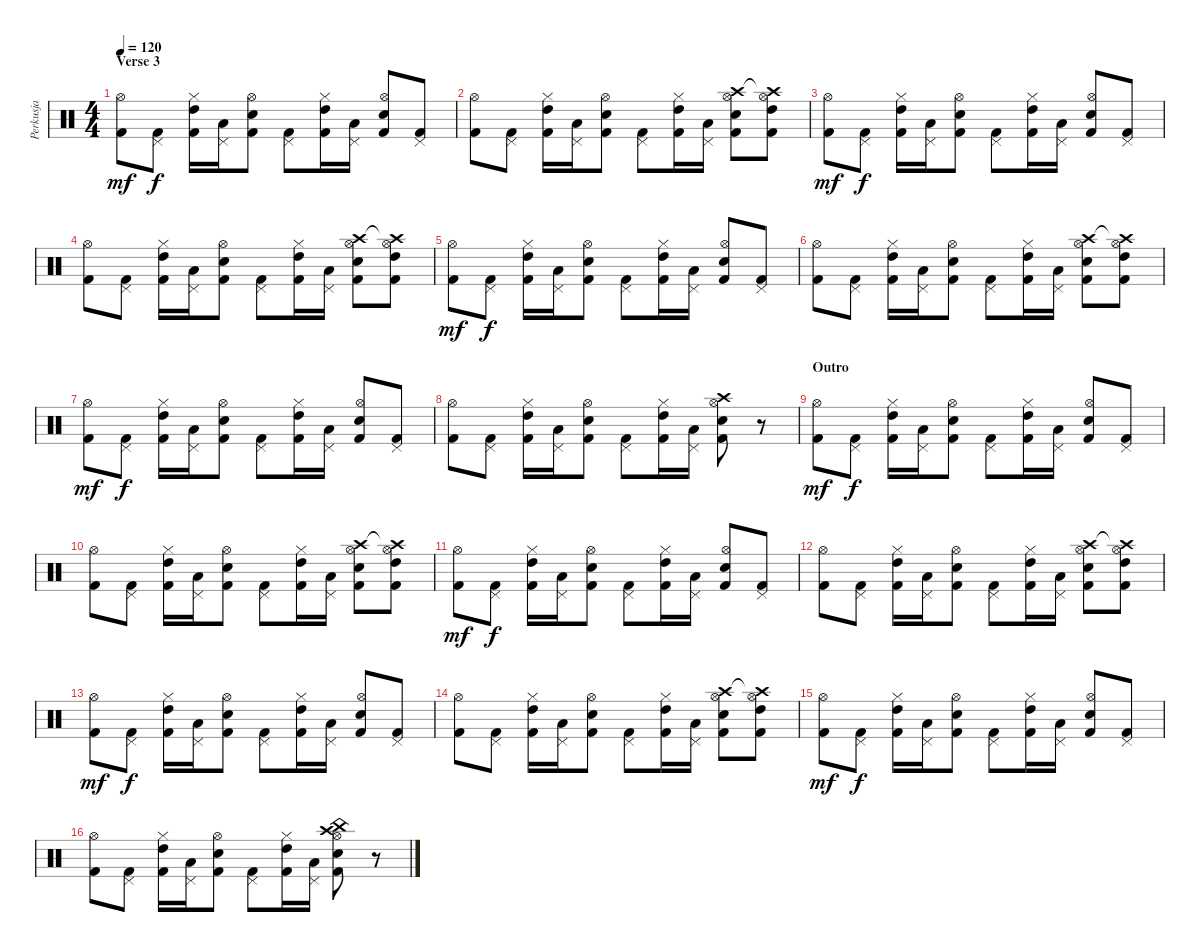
\track ("Perkusja" "Perkusja") {instrument percussion}
\staff {score}
\articulation defaults
\ts (4 4)
\section ("" "Verse 3")
\tempo 120
\clef neutral
\ks c
("Kick (hit) 2" "Hi-Hat (open)").8{dy mf} ("Kick (hit) 2" "Pedal Hi-Hat (hit)").8{dy f} ("Kick (hit) 2" "High Tom (hit)" "Hi-Hat (closed)").16 ("Low Tom (hit)" "Pedal Hi-Hat (hit)").16 ("Kick (hit) 2" "Snare (hit) 2" "Hi-Hat (open)").8 ("Kick (hit) 2" "Pedal Hi-Hat (hit)").8 ("Kick (hit) 2" "High Tom (hit)" "Hi-Hat (closed)").16 ("Low Tom (hit)" "Pedal Hi-Hat (hit)").16 ("Kick (hit) 2" "Snare (hit) 2" "Hi-Hat (open)").8 ("Kick (hit) 2" "Pedal Hi-Hat (hit)").8 |
("Kick (hit) 2" "Hi-Hat (open)").8 ("Kick (hit) 2" "Pedal Hi-Hat (hit)").8 ("Kick (hit) 2" "High Tom (hit)" "Hi-Hat (closed)").16 ("Low Tom (hit)" "Pedal Hi-Hat (hit)").16 ("Kick (hit) 2" "Snare (hit) 2" "Hi-Hat (open)").8 ("Kick (hit) 2" "Pedal Hi-Hat (hit)").8 ("Kick (hit) 2" "High Tom (hit)" "Hi-Hat (closed)").16 ("Low Tom (hit)" "Pedal Hi-Hat (hit)").16 ("Kick (hit) 2" "Snare (hit) 2" "Crash high (hit)" "Hi-Hat (open)").8 ("Kick (hit) 2" "High Tom (hit)" "Crash high (hit)"{t} "Hi-Hat (open)").8 |
("Kick (hit) 2" "Hi-Hat (open)").8{dy mf} ("Kick (hit) 2" "Pedal Hi-Hat (hit)").8{dy f} ("Kick (hit) 2" "High Tom (hit)" "Hi-Hat (closed)").16 ("Low Tom (hit)" "Pedal Hi-Hat (hit)").16 ("Kick (hit) 2" "Snare (hit) 2" "Hi-Hat (open)").8 ("Kick (hit) 2" "Pedal Hi-Hat (hit)").8 ("Kick (hit) 2" "High Tom (hit)" "Hi-Hat (closed)").16 ("Low Tom (hit)" "Pedal Hi-Hat (hit)").16 ("Kick (hit) 2" "Snare (hit) 2" "Hi-Hat (open)").8 ("Kick (hit) 2" "Pedal Hi-Hat (hit)").8 |
("Kick (hit) 2" "Hi-Hat (open)").8 ("Kick (hit) 2" "Pedal Hi-Hat (hit)").8 ("Kick (hit) 2" "High Tom (hit)" "Hi-Hat (closed)").16 ("Low Tom (hit)" "Pedal Hi-Hat (hit)").16 ("Kick (hit) 2" "Snare (hit) 2" "Hi-Hat (open)").8 ("Kick (hit) 2" "Pedal Hi-Hat (hit)").8 ("Kick (hit) 2" "High Tom (hit)" "Hi-Hat (closed)").16 ("Low Tom (hit)" "Pedal Hi-Hat (hit)").16 ("Kick (hit) 2" "Snare (hit) 2" "Crash high (hit)" "Hi-Hat (open)").8 ("Kick (hit) 2" "High Tom (hit)" "Crash high (hit)"{t} "Hi-Hat (open)").8 |
("Kick (hit) 2" "Hi-Hat (open)").8{dy mf} ("Kick (hit) 2" "Pedal Hi-Hat (hit)").8{dy f} ("Kick (hit) 2" "High Tom (hit)" "Hi-Hat (closed)").16 ("Low Tom (hit)" "Pedal Hi-Hat (hit)").16 ("Kick (hit) 2" "Snare (hit) 2" "Hi-Hat (open)").8 ("Kick (hit) 2" "Pedal Hi-Hat (hit)").8 ("Kick (hit) 2" "High Tom (hit)" "Hi-Hat (closed)").16 ("Low Tom (hit)" "Pedal Hi-Hat (hit)").16 ("Kick (hit) 2" "Snare (hit) 2" "Hi-Hat (open)").8 ("Kick (hit) 2" "Pedal Hi-Hat (hit)").8 |
("Kick (hit) 2" "Hi-Hat (open)").8 ("Kick (hit) 2" "Pedal Hi-Hat (hit)").8 ("Kick (hit) 2" "High Tom (hit)" "Hi-Hat (closed)").16 ("Low Tom (hit)" "Pedal Hi-Hat (hit)").16 ("Kick (hit) 2" "Snare (hit) 2" "Hi-Hat (open)").8 ("Kick (hit) 2" "Pedal Hi-Hat (hit)").8 ("Kick (hit) 2" "High Tom (hit)" "Hi-Hat (closed)").16 ("Low Tom (hit)" "Pedal Hi-Hat (hit)").16 ("Kick (hit) 2" "Snare (hit) 2" "Crash high (hit)" "Hi-Hat (open)").8 ("Kick (hit) 2" "High Tom (hit)" "Crash high (hit)"{t} "Hi-Hat (open)").8 |
("Kick (hit) 2" "Hi-Hat (open)").8{dy mf} ("Kick (hit) 2" "Pedal Hi-Hat (hit)").8{dy f} ("Kick (hit) 2" "High Tom (hit)" "Hi-Hat (closed)").16 ("Low Tom (hit)" "Pedal Hi-Hat (hit)").16 ("Kick (hit) 2" "Snare (hit) 2" "Hi-Hat (open)").8 ("Kick (hit) 2" "Pedal Hi-Hat (hit)").8 ("Kick (hit) 2" "High Tom (hit)" "Hi-Hat (closed)").16 ("Low Tom (hit)" "Pedal Hi-Hat (hit)").16 ("Kick (hit) 2" "Snare (hit) 2" "Hi-Hat (open)").8 ("Kick (hit) 2" "Pedal Hi-Hat (hit)").8 |
("Kick (hit) 2" "Hi-Hat (open)").8 ("Kick (hit) 2" "Pedal Hi-Hat (hit)").8 ("Kick (hit) 2" "High Tom (hit)" "Hi-Hat (closed)").16 ("Low Tom (hit)" "Pedal Hi-Hat (hit)").16 ("Kick (hit) 2" "Snare (hit) 2" "Hi-Hat (open)").8 ("Kick (hit) 2" "Pedal Hi-Hat (hit)").8 ("Kick (hit) 2" "High Tom (hit)" "Hi-Hat (closed)").16 ("Low Tom (hit)" "Pedal Hi-Hat (hit)").16 ("Kick (hit) 2" "Snare (hit) 2" "Crash high (hit)" "Hi-Hat (open)").8 r.8 |
\section ("" "Outro")
("Kick (hit) 2" "Hi-Hat (open)").8{dy mf} ("Kick (hit) 2" "Pedal Hi-Hat (hit)").8{dy f} ("Kick (hit) 2" "High Tom (hit)" "Hi-Hat (closed)").16 ("Low Tom (hit)" "Pedal Hi-Hat (hit)").16 ("Kick (hit) 2" "Snare (hit) 2" "Hi-Hat (open)").8 ("Kick (hit) 2" "Pedal Hi-Hat (hit)").8 ("Kick (hit) 2" "High Tom (hit)" "Hi-Hat (closed)").16 ("Low Tom (hit)" "Pedal Hi-Hat (hit)").16 ("Kick (hit) 2" "Snare (hit) 2" "Hi-Hat (open)").8 ("Kick (hit) 2" "Pedal Hi-Hat (hit)").8 |
("Kick (hit) 2" "Hi-Hat (open)").8 ("Kick (hit) 2" "Pedal Hi-Hat (hit)").8 ("Kick (hit) 2" "High Tom (hit)" "Hi-Hat (closed)").16 ("Low Tom (hit)" "Pedal Hi-Hat (hit)").16 ("Kick (hit) 2" "Snare (hit) 2" "Hi-Hat (open)").8 ("Kick (hit) 2" "Pedal Hi-Hat (hit)").8 ("Kick (hit) 2" "High Tom (hit)" "Hi-Hat (closed)").16 ("Low Tom (hit)" "Pedal Hi-Hat (hit)").16 ("Kick (hit) 2" "Snare (hit) 2" "Crash high (hit)" "Hi-Hat (open)").8 ("Kick (hit) 2" "High Tom (hit)" "Crash high (hit)"{t} "Hi-Hat (open)").8 |
("Kick (hit) 2" "Hi-Hat (open)").8{dy mf} ("Kick (hit) 2" "Pedal Hi-Hat (hit)").8{dy f} ("Kick (hit) 2" "High Tom (hit)" "Hi-Hat (closed)").16 ("Low Tom (hit)" "Pedal Hi-Hat (hit)").16 ("Kick (hit) 2" "Snare (hit) 2" "Hi-Hat (open)").8 ("Kick (hit) 2" "Pedal Hi-Hat (hit)").8 ("Kick (hit) 2" "High Tom (hit)" "Hi-Hat (closed)").16 ("Low Tom (hit)" "Pedal Hi-Hat (hit)").16 ("Kick (hit) 2" "Snare (hit) 2" "Hi-Hat (open)").8 ("Kick (hit) 2" "Pedal Hi-Hat (hit)").8 |
("Kick (hit) 2" "Hi-Hat (open)").8 ("Kick (hit) 2" "Pedal Hi-Hat (hit)").8 ("Kick (hit) 2" "High Tom (hit)" "Hi-Hat (closed)").16 ("Low Tom (hit)" "Pedal Hi-Hat (hit)").16 ("Kick (hit) 2" "Snare (hit) 2" "Hi-Hat (open)").8 ("Kick (hit) 2" "Pedal Hi-Hat (hit)").8 ("Kick (hit) 2" "High Tom (hit)" "Hi-Hat (closed)").16 ("Low Tom (hit)" "Pedal Hi-Hat (hit)").16 ("Kick (hit) 2" "Snare (hit) 2" "Crash high (hit)" "Hi-Hat (open)").8 ("Kick (hit) 2" "High Tom (hit)" "Crash high (hit)"{t} "Hi-Hat (open)").8 |
("Kick (hit) 2" "Hi-Hat (open)").8{dy mf} ("Kick (hit) 2" "Pedal Hi-Hat (hit)").8{dy f} ("Kick (hit) 2" "High Tom (hit)" "Hi-Hat (closed)").16 ("Low Tom (hit)" "Pedal Hi-Hat (hit)").16 ("Kick (hit) 2" "Snare (hit) 2" "Hi-Hat (open)").8 ("Kick (hit) 2" "Pedal Hi-Hat (hit)").8 ("Kick (hit) 2" "High Tom (hit)" "Hi-Hat (closed)").16 ("Low Tom (hit)" "Pedal Hi-Hat (hit)").16 ("Kick (hit) 2" "Snare (hit) 2" "Hi-Hat (open)").8 ("Kick (hit) 2" "Pedal Hi-Hat (hit)").8 |
("Kick (hit) 2" "Hi-Hat (open)").8 ("Kick (hit) 2" "Pedal Hi-Hat (hit)").8 ("Kick (hit) 2" "High Tom (hit)" "Hi-Hat (closed)").16 ("Low Tom (hit)" "Pedal Hi-Hat (hit)").16 ("Kick (hit) 2" "Snare (hit) 2" "Hi-Hat (open)").8 ("Kick (hit) 2" "Pedal Hi-Hat (hit)").8 ("Kick (hit) 2" "High Tom (hit)" "Hi-Hat (closed)").16 ("Low Tom (hit)" "Pedal Hi-Hat (hit)").16 ("Kick (hit) 2" "Snare (hit) 2" "Crash high (hit)" "Hi-Hat (open)").8 ("Kick (hit) 2" "High Tom (hit)" "Crash high (hit)"{t} "Hi-Hat (open)").8 |
("Kick (hit) 2" "Hi-Hat (open)").8{dy mf} ("Kick (hit) 2" "Pedal Hi-Hat (hit)").8{dy f} ("Kick (hit) 2" "High Tom (hit)" "Hi-Hat (closed)").16 ("Low Tom (hit)" "Pedal Hi-Hat (hit)").16 ("Kick (hit) 2" "Snare (hit) 2" "Hi-Hat (open)").8 ("Kick (hit) 2" "Pedal Hi-Hat (hit)").8 ("Kick (hit) 2" "High Tom (hit)" "Hi-Hat (closed)").16 ("Low Tom (hit)" "Pedal Hi-Hat (hit)").16 ("Kick (hit) 2" "Snare (hit) 2" "Hi-Hat (open)").8 ("Kick (hit) 2" "Pedal Hi-Hat (hit)").8 |
("Kick (hit) 2" "Hi-Hat (open)").8 ("Kick (hit) 2" "Pedal Hi-Hat (hit)").8 ("Kick (hit) 2" "High Tom (hit)" "Hi-Hat (closed)").16 ("Low Tom (hit)" "Pedal Hi-Hat (hit)").16 ("Kick (hit) 2" "Snare (hit) 2" "Hi-Hat (open)").8 ("Kick (hit) 2" "Pedal Hi-Hat (hit)").8 ("Kick (hit) 2" "High Tom (hit)" "Hi-Hat (closed)").16 ("Low Tom (hit)" "Pedal Hi-Hat (hit)").16 ("Kick (hit) 2" "Snare (hit) 2" "Crash high (hit)" "Hi-Hat (open)" "China (hit)").8 r.8
